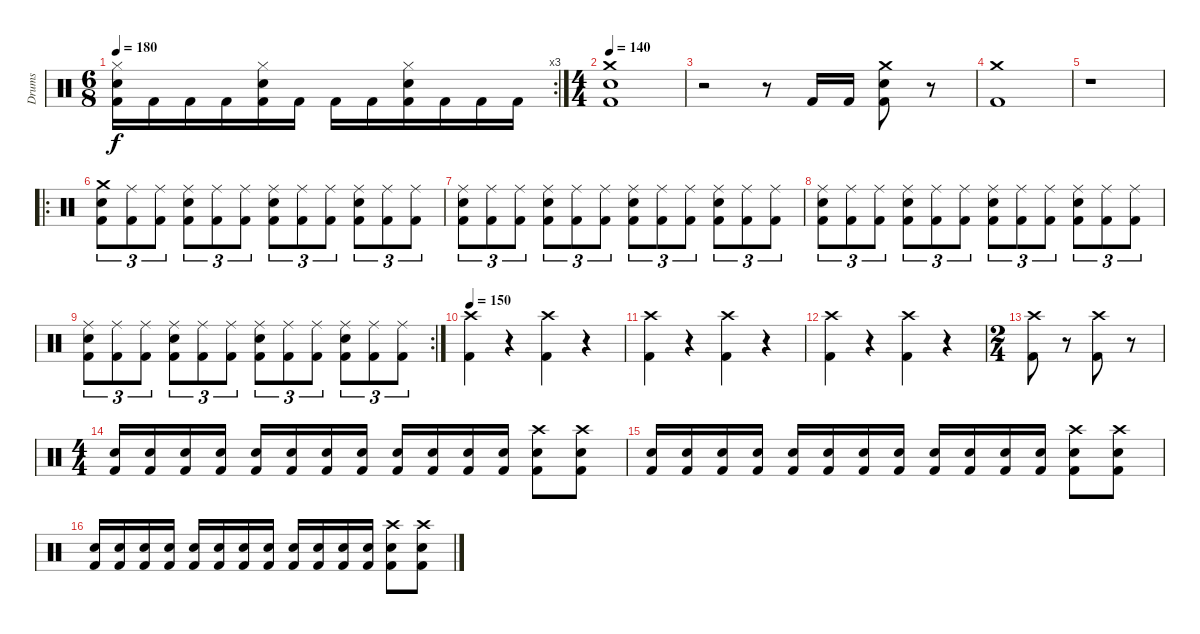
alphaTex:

\track ("Drums" "Drums") {instrument percussion}
\staff {score}
\articulation defaults
\rc 3
\ts (6 8)
\tempo 180
\clef neutral
\ks c
("Kick (hit) 2" "Snare (hit) 2" "Hi-Hat (closed)").16{dy f} "Kick (hit) 2".16 "Kick (hit) 2".16 "Kick (hit) 2".16 ("Kick (hit) 2" "Snare (hit) 2" "Hi-Hat (closed)").16 "Kick (hit) 2".16 "Kick (hit) 2".16 "Kick (hit) 2".16 ("Kick (hit) 2" "Snare (hit) 2" "Hi-Hat (closed)").16 "Kick (hit) 2".16 "Kick (hit) 2".16 "Kick (hit) 2".16 |
\ts (4 4)
\tempo 140
("Kick (hit) 2" "Snare (hit) 2" "Crash medium (hit)").1 |
r.2 r.8 "Kick (hit) 2".16 "Kick (hit) 2".16 ("Kick (hit) 2" "Snare (hit) 2" "Crash medium (hit)").8 r.8 |
("Kick (hit) 2" "Crash medium (hit)").1 |
r.1 |
\ro
("Kick (hit) 2" "Snare (hit) 2" "Crash medium (hit)").8{tu (3 2)} ("Kick (hit) 2" "Ride (middle)").8{tu (3 2)} ("Kick (hit) 2" "Ride (middle)").8{tu (3 2)} ("Kick (hit) 2" "Snare (hit) 2" "Ride (middle)").8{tu (3 2)} ("Kick (hit) 2" "Ride (middle)").8{tu (3 2)} ("Kick (hit) 2" "Ride (middle)").8{tu (3 2)} ("Kick (hit) 2" "Snare (hit) 2" "Ride (middle)").8{tu (3 2)} ("Kick (hit) 2" "Ride (middle)").8{tu (3 2)} ("Kick (hit) 2" "Ride (middle)").8{tu (3 2)} ("Kick (hit) 2" "Snare (hit) 2" "Ride (middle)").8{tu (3 2)} ("Kick (hit) 2" "Ride (middle)").8{tu (3 2)} ("Kick (hit) 2" "Ride (middle)").8{tu (3 2)} |
("Kick (hit) 2" "Snare (hit) 2" "Ride (middle)").8{tu (3 2)} ("Kick (hit) 2" "Ride (middle)").8{tu (3 2)} ("Kick (hit) 2" "Ride (middle)").8{tu (3 2)} ("Kick (hit) 2" "Snare (hit) 2" "Ride (middle)").8{tu (3 2)} ("Kick (hit) 2" "Ride (middle)").8{tu (3 2)} ("Kick (hit) 2" "Ride (middle)").8{tu (3 2)} ("Kick (hit) 2" "Snare (hit) 2" "Ride (middle)").8{tu (3 2)} ("Kick (hit) 2" "Ride (middle)").8{tu (3 2)} ("Kick (hit) 2" "Ride (middle)").8{tu (3 2)} ("Kick (hit) 2" "Snare (hit) 2" "Ride (middle)").8{tu (3 2)} ("Kick (hit) 2" "Ride (middle)").8{tu (3 2)} ("Kick (hit) 2" "Ride (middle)").8{tu (3 2)} |
("Kick (hit) 2" "Snare (hit) 2" "Ride (middle)").8{tu (3 2)} ("Kick (hit) 2" "Ride (middle)").8{tu (3 2)} ("Kick (hit) 2" "Ride (middle)").8{tu (3 2)} ("Kick (hit) 2" "Snare (hit) 2" "Ride (middle)").8{tu (3 2)} ("Kick (hit) 2" "Ride (middle)").8{tu (3 2)} ("Kick (hit) 2" "Ride (middle)").8{tu (3 2)} ("Kick (hit) 2" "Snare (hit) 2" "Ride (middle)").8{tu (3 2)} ("Kick (hit) 2" "Ride (middle)").8{tu (3 2)} ("Kick (hit) 2" "Ride (middle)").8{tu (3 2)} ("Kick (hit) 2" "Snare (hit) 2" "Ride (middle)").8{tu (3 2)} ("Kick (hit) 2" "Ride (middle)").8{tu (3 2)} ("Kick (hit) 2" "Ride (middle)").8{tu (3 2)} |
\rc 2
("Kick (hit) 2" "Snare (hit) 2" "Ride (middle)").8{tu (3 2)} ("Kick (hit) 2" "Ride (middle)").8{tu (3 2)} ("Kick (hit) 2" "Ride (middle)").8{tu (3 2)} ("Kick (hit) 2" "Snare (hit) 2" "Ride (middle)").8{tu (3 2)} ("Kick (hit) 2" "Ride (middle)").8{tu (3 2)} ("Kick (hit) 2" "Ride (middle)").8{tu (3 2)} ("Kick (hit) 2" "Snare (hit) 2" "Ride (middle)").8{tu (3 2)} ("Kick (hit) 2" "Ride (middle)").8{tu (3 2)} ("Kick (hit) 2" "Ride (middle)").8{tu (3 2)} ("Kick (hit) 2" "Snare (hit) 2" "Ride (middle)").8{tu (3 2)} ("Kick (hit) 2" "Ride (middle)").8{tu (3 2)} ("Kick (hit) 2" "Ride (middle)").8{tu (3 2)} |
\tempo 150
("Kick (hit) 2" "Crash high (hit)").4 r.4 ("Kick (hit) 2" "Crash high (hit)").4 r.4 |
("Kick (hit) 2" "Crash high (hit)").4 r.4 ("Kick (hit) 2" "Crash high (hit)").4 r.4 |
("Kick (hit) 2" "Crash high (hit)").4 r.4 ("Kick (hit) 2" "Crash high (hit)").4 r.4 |
\ts (2 4)
("Kick (hit) 2" "Crash high (hit)").8 r.8 ("Kick (hit) 2" "Crash high (hit)").8 r.8 |
\ts (4 4)
("Kick (hit) 2" "Snare (hit) 2").16 ("Kick (hit) 2" "Snare (hit) 2").16 ("Kick (hit) 2" "Snare (hit) 2").16 ("Kick (hit) 2" "Snare (hit) 2").16 ("Kick (hit) 2" "Snare (hit) 2").16 ("Kick (hit) 2" "Snare (hit) 2").16 ("Kick (hit) 2" "Snare (hit) 2").16 ("Kick (hit) 2" "Snare (hit) 2").16 ("Kick (hit) 2" "Snare (hit) 2").16 ("Kick (hit) 2" "Snare (hit) 2").16 ("Kick (hit) 2" "Snare (hit) 2").16 ("Kick (hit) 2" "Snare (hit) 2").16 ("Kick (hit) 2" "Snare (hit) 2" "Crash high (hit)").8 ("Kick (hit) 2" "Snare (hit) 2" "Crash high (hit)").8 |
("Kick (hit) 2" "Snare (hit) 2").16 ("Kick (hit) 2" "Snare (hit) 2").16 ("Kick (hit) 2" "Snare (hit) 2").16 ("Kick (hit) 2" "Snare (hit) 2").16 ("Kick (hit) 2" "Snare (hit) 2").16 ("Kick (hit) 2" "Snare (hit) 2").16 ("Kick (hit) 2" "Snare (hit) 2").16 ("Kick (hit) 2" "Snare (hit) 2").16 ("Kick (hit) 2" "Snare (hit) 2").16 ("Kick (hit) 2" "Snare (hit) 2").16 ("Kick (hit) 2" "Snare (hit) 2").16 ("Kick (hit) 2" "Snare (hit) 2").16 ("Kick (hit) 2" "Snare (hit) 2" "Crash high (hit)").8 ("Kick (hit) 2" "Snare (hit) 2" "Crash high (hit)").8 |
("Kick (hit) 2" "Snare (hit) 2").16 ("Kick (hit) 2" "Snare (hit) 2").16 ("Kick (hit) 2" "Snare (hit) 2").16 ("Kick (hit) 2" "Snare (hit) 2").16 ("Kick (hit) 2" "Snare (hit) 2").16 ("Kick (hit) 2" "Snare (hit) 2").16 ("Kick (hit) 2" "Snare (hit) 2").16 ("Kick (hit) 2" "Snare (hit) 2").16 ("Kick (hit) 2" "Snare (hit) 2").16 ("Kick (hit) 2" "Snare (hit) 2").16 ("Kick (hit) 2" "Snare (hit) 2").16 ("Kick (hit) 2" "Snare (hit) 2").16 ("Kick (hit) 2" "Snare (hit) 2" "Crash high (hit)").8 ("Kick (hit) 2" "Snare (hit) 2" "Crash high (hit)").8
